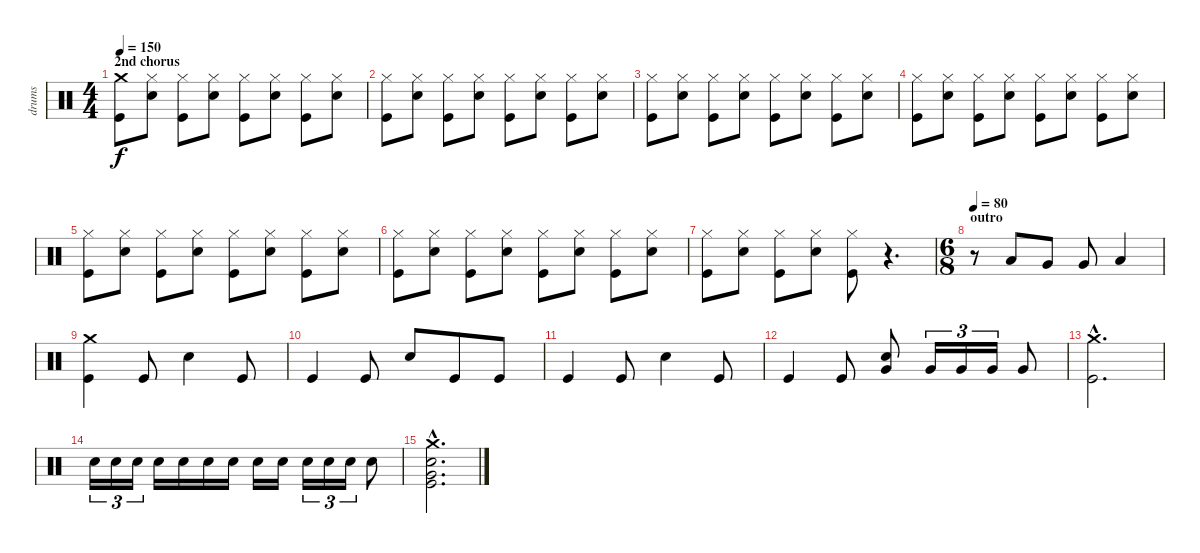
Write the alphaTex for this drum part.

\track ("drums" "drums") {instrument percussion}
\staff {score}
\articulation defaults
\ts (4 4)
\section ("" "2nd chorus")
\tempo 150
\clef neutral
\ks c
("Crash medium (hit)" "Kick (hit)").8{dy f} ("Hi-Hat (closed)" "Electric Snare (hit)").8 ("Hi-Hat (closed)" "Kick (hit)").8 ("Hi-Hat (closed)" "Electric Snare (hit)").8 ("Hi-Hat (closed)" "Kick (hit)").8 ("Hi-Hat (closed)" "Electric Snare (hit)").8 ("Hi-Hat (closed)" "Kick (hit)").8 ("Hi-Hat (closed)" "Electric Snare (hit)").8 |
("Hi-Hat (closed)" "Kick (hit)").8 ("Hi-Hat (closed)" "Electric Snare (hit)").8 ("Hi-Hat (closed)" "Kick (hit)").8 ("Hi-Hat (closed)" "Electric Snare (hit)").8 ("Hi-Hat (closed)" "Kick (hit)").8 ("Hi-Hat (closed)" "Electric Snare (hit)").8 ("Hi-Hat (closed)" "Kick (hit)").8 ("Hi-Hat (closed)" "Electric Snare (hit)").8 |
("Hi-Hat (closed)" "Kick (hit)").8 ("Hi-Hat (closed)" "Electric Snare (hit)").8 ("Hi-Hat (closed)" "Kick (hit)").8 ("Hi-Hat (closed)" "Electric Snare (hit)").8 ("Hi-Hat (closed)" "Kick (hit)").8 ("Hi-Hat (closed)" "Electric Snare (hit)").8 ("Hi-Hat (closed)" "Kick (hit)").8 ("Hi-Hat (closed)" "Electric Snare (hit)").8 |
("Hi-Hat (closed)" "Kick (hit)").8 ("Hi-Hat (closed)" "Electric Snare (hit)").8 ("Hi-Hat (closed)" "Kick (hit)").8 ("Hi-Hat (closed)" "Electric Snare (hit)").8 ("Hi-Hat (closed)" "Kick (hit)").8 ("Hi-Hat (closed)" "Electric Snare (hit)").8 ("Hi-Hat (closed)" "Kick (hit)").8 ("Hi-Hat (closed)" "Electric Snare (hit)").8 |
("Hi-Hat (closed)" "Kick (hit)").8 ("Hi-Hat (closed)" "Electric Snare (hit)").8 ("Hi-Hat (closed)" "Kick (hit)").8 ("Hi-Hat (closed)" "Electric Snare (hit)").8 ("Hi-Hat (closed)" "Kick (hit)").8 ("Hi-Hat (closed)" "Electric Snare (hit)").8 ("Hi-Hat (closed)" "Kick (hit)").8 ("Hi-Hat (closed)" "Electric Snare (hit)").8 |
("Hi-Hat (closed)" "Kick (hit)").8 ("Hi-Hat (closed)" "Electric Snare (hit)").8 ("Hi-Hat (closed)" "Kick (hit)").8 ("Hi-Hat (closed)" "Electric Snare (hit)").8 ("Hi-Hat (closed)" "Kick (hit)").8 ("Hi-Hat (closed)" "Electric Snare (hit)").8 ("Hi-Hat (closed)" "Kick (hit)").8 ("Hi-Hat (closed)" "Electric Snare (hit)").8 |
("Hi-Hat (closed)" "Kick (hit)").8 ("Hi-Hat (closed)" "Electric Snare (hit)").8 ("Hi-Hat (closed)" "Kick (hit)").8 ("Hi-Hat (closed)" "Electric Snare (hit)").8 ("Hi-Hat (closed)" "Kick (hit)").8 r.4{d} |
\ts (6 8)
\section ("" "outro")
\tempo 80
r.8 "Low Tom (hit)".8 "Very Low Tom (hit)".8 "Very Low Tom (hit)".8 "Low Floor Tom (hit)".4 |
("Crash medium (hit)" "Kick (hit)").4 "Kick (hit)".8 "Electric Snare (hit)".4 "Kick (hit)".8 |
"Kick (hit)".4 "Kick (hit)".8 "Electric Snare (hit)".8 "Kick (hit)".8 "Kick (hit)".8 |
"Kick (hit)".4 "Kick (hit)".8 "Electric Snare (hit)".4 "Kick (hit)".8 |
"Kick (hit)".4 "Kick (hit)".8 ("Electric Snare (hit)" "Very Low Tom (hit)").8 "Very Low Tom (hit)".16{tu (3 2)} "Very Low Tom (hit)".16{tu (3 2)} "Very Low Tom (hit)".16{tu (3 2)} "Very Low Tom (hit)".8 |
("Crash medium (hit)"{hac} "Kick (hit)"{hac}).2{d} |
"Electric Snare (hit)".16{tu (3 2)} "Electric Snare (hit)".16{tu (3 2)} "Electric Snare (hit)".16{tu (3 2)} "Electric Snare (hit)".16 "Electric Snare (hit)".16 "Electric Snare (hit)".16 "Electric Snare (hit)".16 "Electric Snare (hit)".16 "Electric Snare (hit)".16 "Electric Snare (hit)".16{tu (3 2)} "Electric Snare (hit)".16{tu (3 2)} "Electric Snare (hit)".16{tu (3 2)} "Electric Snare (hit)".8 |
("Crash medium (hit)"{hac} "Electric Snare (hit)"{hac} "Very Low Tom (hit)"{hac} "Kick (hit)"{hac}).2{d bd 240}
